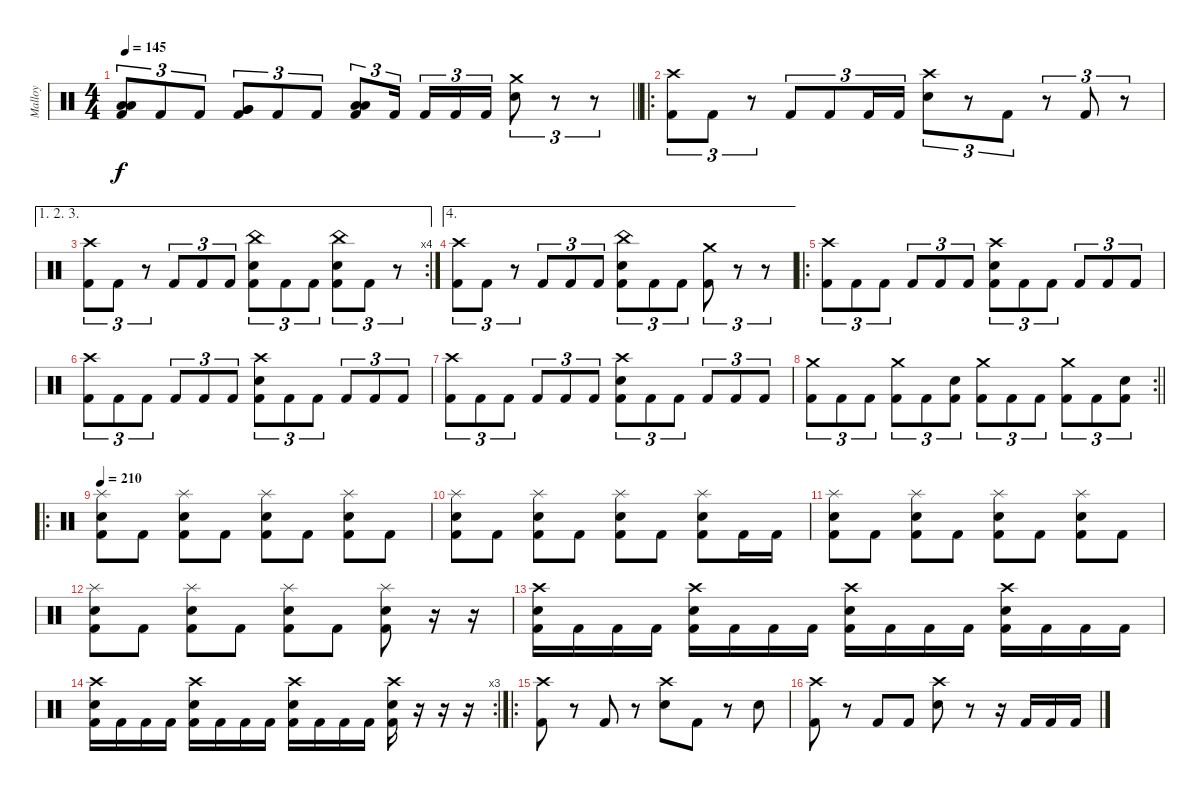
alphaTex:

\track ("Malloy" "Malloy") {instrument percussion}
\staff {score}
\articulation defaults
\ts (4 4)
\tempo 145
\clef neutral
\barLineRight lightlight
\ks c
("Kick (hit) 2" "Low Tom (hit)" "Low Tom (hit)").8{tu (3 2) dy f} "Kick (hit) 2".8{tu (3 2)} "Kick (hit) 2".8{tu (3 2)} ("Kick (hit) 2" "Very Low Tom (hit)" "Very Low Tom (hit)").8{tu (3 2)} "Kick (hit) 2".8{tu (3 2)} "Kick (hit) 2".8{tu (3 2)} ("Kick (hit) 2" "Low Floor Tom (hit)" "Low Floor Tom (hit)").8{tu (3 2)} "Kick (hit) 2".16{tu (3 2) beam splitsecondary} "Kick (hit) 2".16{tu (3 2)} "Kick (hit) 2".16{tu (3 2)} "Kick (hit) 2".16{tu (3 2)} ("Electric Snare (hit)" "Crash medium (hit)").8{tu (3 2)} r.8{tu (3 2)} r.8{tu (3 2)} |
\ro
("Kick (hit) 2" "Crash high (hit)").8{tu (3 2)} "Kick (hit) 2".8{tu (3 2)} r.8{tu (3 2)} "Kick (hit) 2".8{tu (3 2)} "Kick (hit) 2".8{tu (3 2)} "Kick (hit) 2".16{tu (3 2)} "Kick (hit) 2".16{tu (3 2)} ("Electric Snare (hit)" "Crash high (hit)").8{tu (3 2)} r.8{tu (3 2)} "Kick (hit) 2".8{tu (3 2)} r.8{tu (3 2)} "Kick (hit) 2".8{tu (3 2)} r.8{tu (3 2)} |
\ae (1 2 3)
\rc 4
("Kick (hit) 2" "Crash high (hit)").8{tu (3 2)} "Kick (hit) 2".8{tu (3 2)} r.8{tu (3 2)} "Kick (hit) 2".8{tu (3 2)} "Kick (hit) 2".8{tu (3 2)} "Kick (hit) 2".8{tu (3 2)} ("Kick (hit) 2" "Electric Snare (hit)" "China (hit)").8{tu (3 2)} "Kick (hit) 2".8{tu (3 2)} "Kick (hit) 2".8{tu (3 2)} ("Kick (hit) 2" "Electric Snare (hit)" "China (hit)").8{tu (3 2)} "Kick (hit) 2".8{tu (3 2)} r.8{tu (3 2)} |
\ae 4
("Kick (hit) 2" "Crash high (hit)").8{tu (3 2)} "Kick (hit) 2".8{tu (3 2)} r.8{tu (3 2)} "Kick (hit) 2".8{tu (3 2)} "Kick (hit) 2".8{tu (3 2)} "Kick (hit) 2".8{tu (3 2)} ("Kick (hit) 2" "Electric Snare (hit)" "China (hit)").8{tu (3 2)} "Kick (hit) 2".8{tu (3 2)} "Kick (hit) 2".8{tu (3 2)} ("Kick (hit) 2" "Crash medium (hit)").8{tu (3 2)} r.8{tu (3 2)} r.8{tu (3 2)} |
\ro
("Kick (hit) 2" "Crash high (hit)").8{tu (3 2)} "Kick (hit) 2".8{tu (3 2)} "Kick (hit) 2".8{tu (3 2)} "Kick (hit) 2".8{tu (3 2)} "Kick (hit) 2".8{tu (3 2)} "Kick (hit) 2".8{tu (3 2)} ("Kick (hit) 2" "Electric Snare (hit)" "Crash high (hit)").8{tu (3 2)} "Kick (hit) 2".8{tu (3 2)} "Kick (hit) 2".8{tu (3 2)} "Kick (hit) 2".8{tu (3 2)} "Kick (hit) 2".8{tu (3 2)} "Kick (hit) 2".8{tu (3 2)} |
("Kick (hit) 2" "Crash high (hit)").8{tu (3 2)} "Kick (hit) 2".8{tu (3 2)} "Kick (hit) 2".8{tu (3 2)} "Kick (hit) 2".8{tu (3 2)} "Kick (hit) 2".8{tu (3 2)} "Kick (hit) 2".8{tu (3 2)} ("Kick (hit) 2" "Electric Snare (hit)" "Crash high (hit)").8{tu (3 2)} "Kick (hit) 2".8{tu (3 2)} "Kick (hit) 2".8{tu (3 2)} "Kick (hit) 2".8{tu (3 2)} "Kick (hit) 2".8{tu (3 2)} "Kick (hit) 2".8{tu (3 2)} |
("Kick (hit) 2" "Crash high (hit)").8{tu (3 2)} "Kick (hit) 2".8{tu (3 2)} "Kick (hit) 2".8{tu (3 2)} "Kick (hit) 2".8{tu (3 2)} "Kick (hit) 2".8{tu (3 2)} "Kick (hit) 2".8{tu (3 2)} ("Kick (hit) 2" "Electric Snare (hit)" "Crash high (hit)").8{tu (3 2)} "Kick (hit) 2".8{tu (3 2)} "Kick (hit) 2".8{tu (3 2)} "Kick (hit) 2".8{tu (3 2)} "Kick (hit) 2".8{tu (3 2)} "Kick (hit) 2".8{tu (3 2)} |
\rc 2
\barLineRight lightlight
("Kick (hit) 2" "Crash medium (hit)").8{tu (3 2)} "Kick (hit) 2".8{tu (3 2)} "Kick (hit) 2".8{tu (3 2)} ("Kick (hit) 2" "Crash medium (hit)").8{tu (3 2)} "Kick (hit) 2".8{tu (3 2)} ("Kick (hit) 2" "Electric Snare (hit)").8{tu (3 2)} ("Kick (hit) 2" "Crash medium (hit)").8{tu (3 2)} "Kick (hit) 2".8{tu (3 2)} "Kick (hit) 2".8{tu (3 2)} ("Kick (hit) 2" "Crash medium (hit)").8{tu (3 2)} "Kick (hit) 2".8{tu (3 2)} ("Kick (hit) 2" "Electric Snare (hit)").8{tu (3 2)} |
\ro
\tempo 210
("Kick (hit) 2" "Electric Snare (hit)" "Splash (hit)").8 "Kick (hit) 2".8 ("Kick (hit) 2" "Electric Snare (hit)" "Splash (hit)").8 "Kick (hit) 2".8 ("Kick (hit) 2" "Electric Snare (hit)" "Splash (hit)").8 "Kick (hit) 2".8 ("Kick (hit) 2" "Electric Snare (hit)" "Splash (hit)").8 "Kick (hit) 2".8 |
("Kick (hit) 2" "Electric Snare (hit)" "Splash (hit)").8 "Kick (hit) 2".8 ("Kick (hit) 2" "Electric Snare (hit)" "Splash (hit)").8 "Kick (hit) 2".8 ("Kick (hit) 2" "Electric Snare (hit)" "Splash (hit)").8 "Kick (hit) 2".8 ("Kick (hit) 2" "Electric Snare (hit)" "Splash (hit)").8 "Kick (hit) 2".16 "Kick (hit) 2".16 |
("Kick (hit) 2" "Electric Snare (hit)" "Splash (hit)").8 "Kick (hit) 2".8 ("Kick (hit) 2" "Electric Snare (hit)" "Splash (hit)").8 "Kick (hit) 2".8 ("Kick (hit) 2" "Electric Snare (hit)" "Splash (hit)").8 "Kick (hit) 2".8 ("Kick (hit) 2" "Electric Snare (hit)" "Splash (hit)").8 "Kick (hit) 2".8 |
("Kick (hit) 2" "Electric Snare (hit)" "Splash (hit)").8 "Kick (hit) 2".8 ("Kick (hit) 2" "Electric Snare (hit)" "Splash (hit)").8 "Kick (hit) 2".8 ("Kick (hit) 2" "Electric Snare (hit)" "Splash (hit)").8 "Kick (hit) 2".8 ("Kick (hit) 2" "Electric Snare (hit)" "Splash (hit)").8 r.16 r.16 |
("Kick (hit) 2" "Electric Snare (hit)" "Crash high (hit)").16 "Kick (hit) 2".16 "Kick (hit) 2".16 "Kick (hit) 2".16 ("Kick (hit) 2" "Electric Snare (hit)" "Crash high (hit)").16 "Kick (hit) 2".16 "Kick (hit) 2".16 "Kick (hit) 2".16 ("Kick (hit) 2" "Electric Snare (hit)" "Crash high (hit)").16 "Kick (hit) 2".16 "Kick (hit) 2".16 "Kick (hit) 2".16 ("Kick (hit) 2" "Electric Snare (hit)" "Crash high (hit)").16 "Kick (hit) 2".16 "Kick (hit) 2".16 "Kick (hit) 2".16 |
\rc 3
("Kick (hit) 2" "Electric Snare (hit)" "Crash high (hit)").16 "Kick (hit) 2".16 "Kick (hit) 2".16 "Kick (hit) 2".16 ("Kick (hit) 2" "Electric Snare (hit)" "Crash high (hit)").16 "Kick (hit) 2".16 "Kick (hit) 2".16 "Kick (hit) 2".16 ("Kick (hit) 2" "Electric Snare (hit)" "Crash high (hit)").16 "Kick (hit) 2".16 "Kick (hit) 2".16 "Kick (hit) 2".16 ("Kick (hit) 2" "Electric Snare (hit)" "Crash high (hit)").16 r.16 r.16 r.16 |
\ro
("Kick (hit) 2" "Crash high (hit)").8 r.8 "Kick (hit) 2".8 r.8 ("Electric Snare (hit)" "Crash high (hit)").8 "Kick (hit) 2".8 r.8 "Electric Snare (hit)".8 |
("Kick (hit) 2" "Crash high (hit)").8 r.8 "Kick (hit) 2".8 "Kick (hit) 2".8 ("Electric Snare (hit)" "Crash high (hit)").8 r.8 r.16 "Kick (hit) 2".16 "Kick (hit) 2".16 "Kick (hit) 2".16
